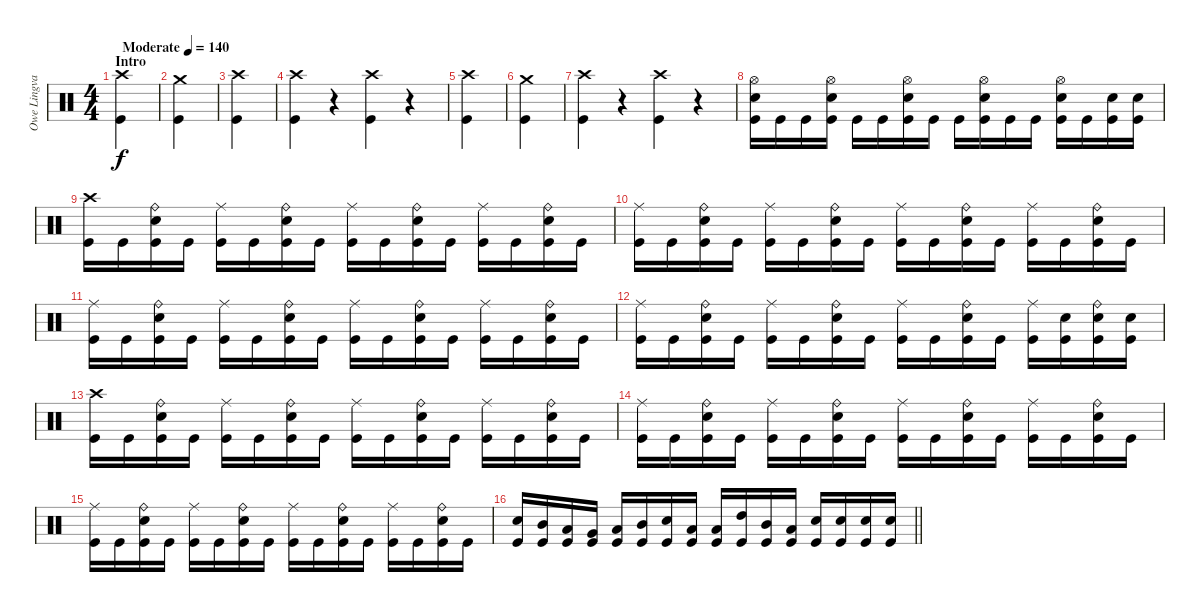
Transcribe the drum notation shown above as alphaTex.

\track ("Owe Lingvall" "Owe Lingva") {instrument percussion}
\staff {score}
\articulation defaults
\ts (4 4)
\section ("" "Intro")
\tempo (140 "Moderate")
\clef neutral
\ks c
("Crash high (hit)" "Kick (hit)").4{dy f} |
("Crash medium (hit)" "Kick (hit)").4 |
("Crash high (hit)" "Kick (hit)").4 |
("Crash high (hit)" "Kick (hit)").4 r.4 ("Crash high (hit)" "Kick (hit)").4 r.4 |
("Crash high (hit)" "Kick (hit)").4 |
("Crash medium (hit)" "Kick (hit)").4 |
("Crash high (hit)" "Kick (hit)").4 r.4 ("Crash high (hit)" "Kick (hit)").4 r.4 |
("Kick (hit)" "Snare (hit) 2" "Hi-Hat (open)").16 "Kick (hit)".16 "Kick (hit)".16 ("Kick (hit)" "Snare (hit) 2" "Hi-Hat (open)").16 "Kick (hit)".16 "Kick (hit)".16 ("Kick (hit)" "Snare (hit) 2" "Hi-Hat (open)").16 "Kick (hit)".16 "Kick (hit)".16 ("Kick (hit)" "Snare (hit) 2" "Hi-Hat (open)").16 "Kick (hit)".16 "Kick (hit)".16 ("Kick (hit)" "Snare (hit) 2" "Hi-Hat (open)").16 "Kick (hit)".16 ("Kick (hit)" "Snare (hit) 2").16 ("Kick (hit)" "Snare (hit) 2").16 |
("Kick (hit)" "Crash high (hit)").16 "Kick (hit)".16 ("Kick (hit)" "Ride (bell)" "Snare (hit) 2").16 "Kick (hit)".16 ("Kick (hit)" "Ride (middle)").16 "Kick (hit)".16 ("Kick (hit)" "Ride (bell)" "Snare (hit) 2").16 "Kick (hit)".16 ("Kick (hit)" "Ride (middle)").16 "Kick (hit)".16 ("Kick (hit)" "Ride (bell)" "Snare (hit) 2").16 "Kick (hit)".16 ("Kick (hit)" "Ride (middle)").16 "Kick (hit)".16 ("Kick (hit)" "Ride (bell)" "Snare (hit) 2").16 "Kick (hit)".16 |
("Kick (hit)" "Ride (middle)").16 "Kick (hit)".16 ("Kick (hit)" "Ride (bell)" "Snare (hit) 2").16 "Kick (hit)".16 ("Kick (hit)" "Ride (middle)").16 "Kick (hit)".16 ("Kick (hit)" "Ride (bell)" "Snare (hit) 2").16 "Kick (hit)".16 ("Kick (hit)" "Ride (middle)").16 "Kick (hit)".16 ("Kick (hit)" "Ride (bell)" "Snare (hit) 2").16 "Kick (hit)".16 ("Kick (hit)" "Ride (middle)").16 "Kick (hit)".16 ("Kick (hit)" "Ride (bell)" "Snare (hit) 2").16 "Kick (hit)".16 |
("Kick (hit)" "Ride (middle)").16 "Kick (hit)".16 ("Kick (hit)" "Ride (bell)" "Snare (hit) 2").16 "Kick (hit)".16 ("Kick (hit)" "Ride (middle)").16 "Kick (hit)".16 ("Kick (hit)" "Ride (bell)" "Snare (hit) 2").16 "Kick (hit)".16 ("Kick (hit)" "Ride (middle)").16 "Kick (hit)".16 ("Kick (hit)" "Ride (bell)" "Snare (hit) 2").16 "Kick (hit)".16 ("Kick (hit)" "Ride (middle)").16 "Kick (hit)".16 ("Kick (hit)" "Ride (bell)" "Snare (hit) 2").16 "Kick (hit)".16 |
("Kick (hit)" "Ride (middle)").16 "Kick (hit)".16 ("Kick (hit)" "Ride (bell)" "Snare (hit) 2").16 "Kick (hit)".16 ("Kick (hit)" "Ride (middle)").16 "Kick (hit)".16 ("Kick (hit)" "Ride (bell)" "Snare (hit) 2").16 "Kick (hit)".16 ("Kick (hit)" "Ride (middle)").16 "Kick (hit)".16 ("Kick (hit)" "Ride (bell)" "Snare (hit) 2").16 "Kick (hit)".16 ("Kick (hit)" "Ride (middle)").16 ("Kick (hit)" "Snare (hit) 2").16 ("Kick (hit)" "Ride (bell)" "Snare (hit) 2").16 ("Kick (hit)" "Snare (hit) 2").16 |
("Kick (hit)" "Crash high (hit)").16 "Kick (hit)".16 ("Kick (hit)" "Ride (bell)" "Snare (hit) 2").16 "Kick (hit)".16 ("Kick (hit)" "Ride (middle)").16 "Kick (hit)".16 ("Kick (hit)" "Ride (bell)" "Snare (hit) 2").16 "Kick (hit)".16 ("Kick (hit)" "Ride (middle)").16 "Kick (hit)".16 ("Kick (hit)" "Ride (bell)" "Snare (hit) 2").16 "Kick (hit)".16 ("Kick (hit)" "Ride (middle)").16 "Kick (hit)".16 ("Kick (hit)" "Ride (bell)" "Snare (hit) 2").16 "Kick (hit)".16 |
("Kick (hit)" "Ride (middle)").16 "Kick (hit)".16 ("Kick (hit)" "Ride (bell)" "Snare (hit) 2").16 "Kick (hit)".16 ("Kick (hit)" "Ride (middle)").16 "Kick (hit)".16 ("Kick (hit)" "Ride (bell)" "Snare (hit) 2").16 "Kick (hit)".16 ("Kick (hit)" "Ride (middle)").16 "Kick (hit)".16 ("Kick (hit)" "Ride (bell)" "Snare (hit) 2").16 "Kick (hit)".16 ("Kick (hit)" "Ride (middle)").16 "Kick (hit)".16 ("Kick (hit)" "Ride (bell)" "Snare (hit) 2").16 "Kick (hit)".16 |
("Kick (hit)" "Ride (middle)").16 "Kick (hit)".16 ("Kick (hit)" "Ride (bell)" "Snare (hit) 2").16 "Kick (hit)".16 ("Kick (hit)" "Ride (middle)").16 "Kick (hit)".16 ("Kick (hit)" "Ride (bell)" "Snare (hit) 2").16 "Kick (hit)".16 ("Kick (hit)" "Ride (middle)").16 "Kick (hit)".16 ("Kick (hit)" "Ride (bell)" "Snare (hit) 2").16 "Kick (hit)".16 ("Kick (hit)" "Ride (middle)").16 "Kick (hit)".16 ("Kick (hit)" "Ride (bell)" "Snare (hit) 2").16 "Kick (hit)".16 |
\barLineRight lightlight
("Kick (hit)" "Snare (hit) 2").16 ("Kick (hit)" "Mid Tom (hit)").16 ("Kick (hit)" "Low Tom (hit)").16 ("Kick (hit)" "Very Low Tom (hit)").16 ("Kick (hit)" "Low Tom (hit)").16 ("Kick (hit)" "Mid Tom (hit)").16 ("Kick (hit)" "Snare (hit) 2").16 ("Kick (hit)" "Low Tom (hit)").16 ("Kick (hit)" "Low Tom (hit)").16 ("Kick (hit)" "High Tom (hit)").16 ("Kick (hit)" "Mid Tom (hit)").16 ("Kick (hit)" "Low Tom (hit)").16 ("Kick (hit)" "Snare (hit) 2").16 ("Kick (hit)" "Snare (hit) 2").16 ("Kick (hit)" "Snare (hit) 2").16 ("Kick (hit)" "Snare (hit) 2").16
